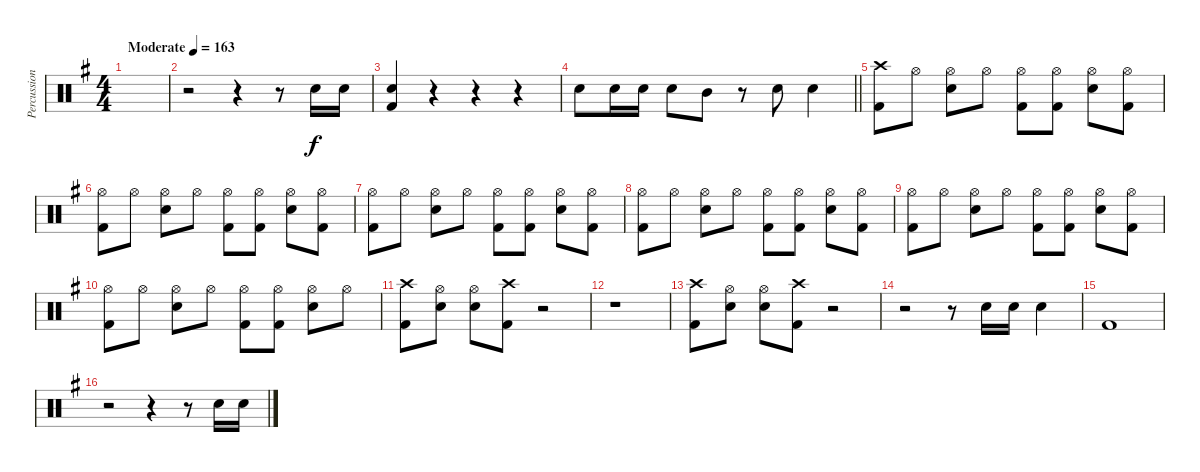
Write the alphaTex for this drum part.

\track ("Percussion" "Percussion") {instrument percussion}
\staff {score}
\articulation defaults
\ts (4 4)
\tempo (163 "Moderate")
\clef neutral
\ks g
|
r.2 r.4 r.8 "Snare (hit) 2".16 "Snare (hit) 2".16 |
("Snare (hit) 2" "Kick (hit) 2").4 r.4 r.4 r.4 |
\barLineRight lightlight "Snare (hit) 2".8 "Snare (hit) 2".16 "Snare (hit) 2".16 "Snare (hit) 2".8 "Mid Tom (hit)".8
r.8 "Snare (hit) 2".8 "Snare (hit) 2".4 |
("Crash high (hit)" "Kick (hit) 2").8 "Hi-Hat (open)".8 ("Hi-Hat (open)" "Snare (hit) 2").8 "Hi-Hat (open)".8 ("Hi-Hat (open)" "Kick (hit) 2").8 ("Hi-Hat (open)" "Kick (hit) 2").8 ("Hi-Hat (open)" "Snare (hit) 2").8 ("Hi-Hat (open)" "Kick (hit) 2").8 |
("Hi-Hat (open)" "Kick (hit) 2").8 "Hi-Hat (open)".8 ("Hi-Hat (open)" "Snare (hit) 2").8 "Hi-Hat (open)".8 ("Hi-Hat (open)" "Kick (hit) 2").8 ("Hi-Hat (open)" "Kick (hit) 2").8 ("Hi-Hat (open)" "Snare (hit) 2").8 ("Hi-Hat (open)" "Kick (hit) 2").8 |
("Hi-Hat (open)" "Kick (hit) 2").8 "Hi-Hat (open)".8 ("Hi-Hat (open)" "Snare (hit) 2").8 "Hi-Hat (open)".8 ("Hi-Hat (open)" "Kick (hit) 2").8 ("Hi-Hat (open)" "Kick (hit) 2").8 ("Hi-Hat (open)" "Snare (hit) 2").8 ("Hi-Hat (open)" "Kick (hit) 2").8 |
("Hi-Hat (open)" "Kick (hit) 2").8 "Hi-Hat (open)".8 ("Hi-Hat (open)" "Snare (hit) 2").8 "Hi-Hat (open)".8 ("Hi-Hat (open)" "Kick (hit) 2").8 ("Hi-Hat (open)" "Kick (hit) 2").8 ("Hi-Hat (open)" "Snare (hit) 2").8 ("Hi-Hat (open)" "Kick (hit) 2").8 |
("Hi-Hat (open)" "Kick (hit) 2").8 "Hi-Hat (open)".8 ("Hi-Hat (open)" "Snare (hit) 2").8 "Hi-Hat (open)".8 ("Hi-Hat (open)" "Kick (hit) 2").8 ("Hi-Hat (open)" "Kick (hit) 2").8 ("Hi-Hat (open)" "Snare (hit) 2").8 ("Hi-Hat (open)" "Kick (hit) 2").8 |
("Hi-Hat (open)" "Kick (hit) 2").8 "Hi-Hat (open)".8 ("Hi-Hat (open)" "Snare (hit) 2").8 "Hi-Hat (open)".8 ("Hi-Hat (open)" "Kick (hit) 2").8 ("Hi-Hat (open)" "Kick (hit) 2").8 ("Hi-Hat (open)" "Snare (hit) 2").8 "Hi-Hat (open)".8 |
("Crash high (hit)" "Kick (hit) 2").8 ("Hi-Hat (open)" "Snare (hit) 2").8 ("Hi-Hat (open)" "Snare (hit) 2").8 ("Crash high (hit)" "Kick (hit) 2").8 r.2 |
r.1 |
("Crash high (hit)" "Kick (hit) 2").8 ("Hi-Hat (open)" "Snare (hit) 2").8 ("Hi-Hat (open)" "Snare (hit) 2").8 ("Crash high (hit)" "Kick (hit) 2").8 r.2 |
r.2 r.8 "Snare (hit) 2".16 "Snare (hit) 2".16 "Snare (hit) 2".4 |
"Kick (hit) 2".1 |
r.2 r.4 r.8 "Snare (hit) 2".16 "Snare (hit) 2".16
